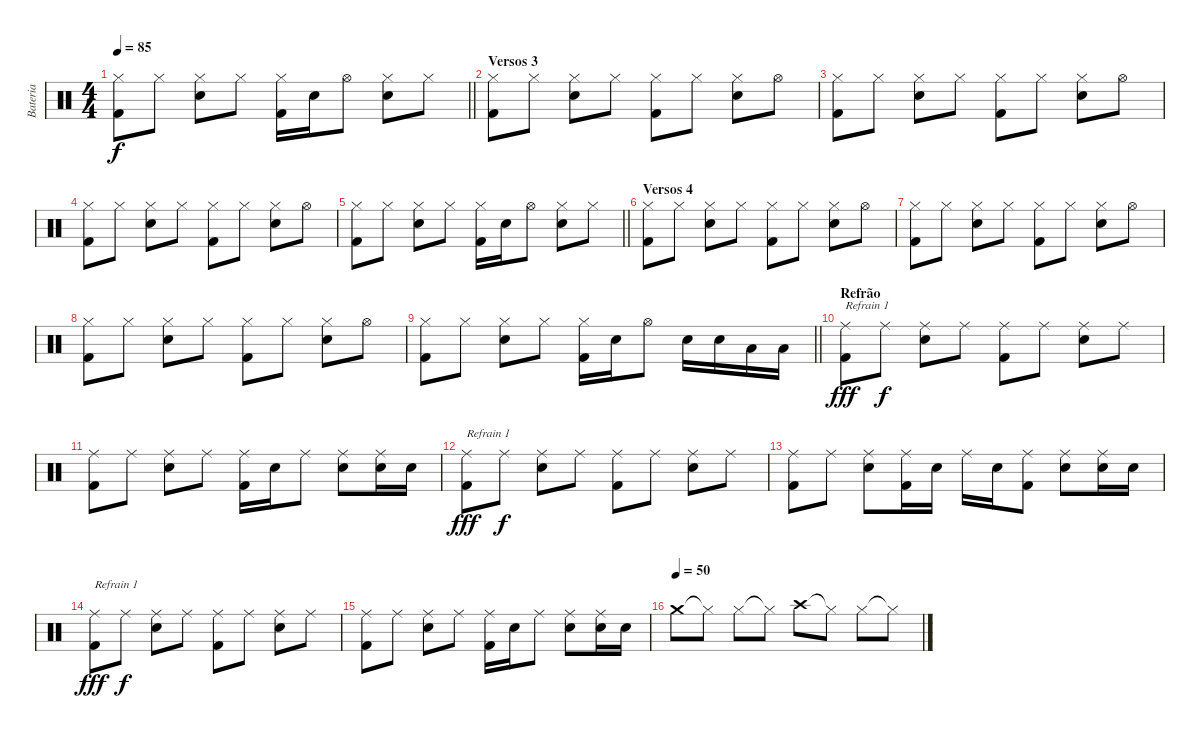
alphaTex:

\track ("Bateria" "Bateria") {instrument percussion}
\staff {score}
\articulation defaults
\ts (4 4)
\tempo 85
\clef neutral
\barLineRight lightlight
\ks c
("Hi-Hat (closed)" "Kick (hit) 2").8{dy f} "Hi-Hat (closed)".8 ("Hi-Hat (closed)" "Snare (hit) 2").8 "Hi-Hat (closed)".8 ("Hi-Hat (closed)" "Kick (hit) 2").16 "Snare (hit) 2".16 "Hi-Hat (open)".8 ("Hi-Hat (closed)" "Snare (hit) 2").8 "Hi-Hat (closed)".8 |
\section ("" "Versos 3")
("Hi-Hat (closed)" "Kick (hit) 2").8 "Hi-Hat (closed)".8 ("Hi-Hat (closed)" "Snare (hit) 2").8 "Hi-Hat (closed)".8 ("Hi-Hat (closed)" "Kick (hit) 2").8 "Hi-Hat (closed)".8 ("Hi-Hat (closed)" "Snare (hit) 2").8 "Hi-Hat (open)".8 |
("Hi-Hat (closed)" "Kick (hit) 2").8 "Hi-Hat (closed)".8 ("Hi-Hat (closed)" "Snare (hit) 2").8 "Hi-Hat (closed)".8 ("Hi-Hat (closed)" "Kick (hit) 2").8 "Hi-Hat (closed)".8 ("Hi-Hat (closed)" "Snare (hit) 2").8 "Hi-Hat (open)".8 |
("Hi-Hat (closed)" "Kick (hit) 2").8 "Hi-Hat (closed)".8 ("Hi-Hat (closed)" "Snare (hit) 2").8 "Hi-Hat (closed)".8 ("Hi-Hat (closed)" "Kick (hit) 2").8 "Hi-Hat (closed)".8 ("Hi-Hat (closed)" "Snare (hit) 2").8 "Hi-Hat (open)".8 |
\barLineRight lightlight
("Hi-Hat (closed)" "Kick (hit) 2").8 "Hi-Hat (closed)".8 ("Hi-Hat (closed)" "Snare (hit) 2").8 "Hi-Hat (closed)".8 ("Hi-Hat (closed)" "Kick (hit) 2").16 "Snare (hit) 2".16 "Hi-Hat (open)".8 ("Hi-Hat (closed)" "Snare (hit) 2").8 "Hi-Hat (closed)".8 |
\section ("" "Versos 4")
("Hi-Hat (closed)" "Kick (hit) 2").8 "Hi-Hat (closed)".8 ("Hi-Hat (closed)" "Snare (hit) 2").8 "Hi-Hat (closed)".8 ("Hi-Hat (closed)" "Kick (hit) 2").8 "Hi-Hat (closed)".8 ("Hi-Hat (closed)" "Snare (hit) 2").8 "Hi-Hat (open)".8 |
("Hi-Hat (closed)" "Kick (hit) 2").8 "Hi-Hat (closed)".8 ("Hi-Hat (closed)" "Snare (hit) 2").8 "Hi-Hat (closed)".8 ("Hi-Hat (closed)" "Kick (hit) 2").8 "Hi-Hat (closed)".8 ("Hi-Hat (closed)" "Snare (hit) 2").8 "Hi-Hat (open)".8 |
("Hi-Hat (closed)" "Kick (hit) 2").8 "Hi-Hat (closed)".8 ("Hi-Hat (closed)" "Snare (hit) 2").8 "Hi-Hat (closed)".8 ("Hi-Hat (closed)" "Kick (hit) 2").8 "Hi-Hat (closed)".8 ("Hi-Hat (closed)" "Snare (hit) 2").8 "Hi-Hat (open)".8 |
\barLineRight lightlight
("Hi-Hat (closed)" "Kick (hit) 2").8 "Hi-Hat (closed)".8 ("Hi-Hat (closed)" "Snare (hit) 2").8 "Hi-Hat (closed)".8 ("Hi-Hat (closed)" "Kick (hit) 2").16 "Snare (hit) 2".16 "Hi-Hat (open)".8 "Snare (hit) 2".16 "Snare (hit) 2".16 "Low Tom (hit)".16 "Low Tom (hit)".16 |
\section ("" "Refrão")
("Ride (middle)" "Kick (hit) 2").8{txt "Refrain 1" dy fff} "Ride (middle)".8{dy f} ("Ride (middle)" "Snare (hit) 2").8 "Ride (middle)".8 ("Ride (middle)" "Kick (hit) 2").8 "Ride (middle)".8 ("Ride (middle)" "Snare (hit) 2").8 "Ride (middle)".8 |
("Ride (middle)" "Kick (hit) 2").8 "Ride (middle)".8 ("Ride (middle)" "Snare (hit) 2").8 "Ride (middle)".8 ("Ride (middle)" "Kick (hit) 2").16 "Snare (hit) 2".16 "Ride (middle)".8 ("Ride (middle)" "Snare (hit) 2").8 ("Ride (middle)" "Snare (hit) 2").16 "Snare (hit) 2".16 |
("Ride (middle)" "Kick (hit) 2").8{txt "Refrain 1" dy fff} "Ride (middle)".8{dy f} ("Ride (middle)" "Snare (hit) 2").8 "Ride (middle)".8 ("Ride (middle)" "Kick (hit) 2").8 "Ride (middle)".8 ("Ride (middle)" "Snare (hit) 2").8 "Ride (middle)".8 |
("Ride (middle)" "Kick (hit) 2").8 "Ride (middle)".8 ("Ride (middle)" "Snare (hit) 2").8 ("Ride (middle)" "Kick (hit) 2").16 "Snare (hit) 2".16 "Ride (middle)".16 "Snare (hit) 2".16 ("Ride (middle)" "Kick (hit) 2").8 ("Ride (middle)" "Snare (hit) 2").8 ("Ride (middle)" "Snare (hit) 2").16 "Snare (hit) 2".16 |
("Ride (middle)" "Kick (hit) 2").8{txt "Refrain 1" dy fff} "Ride (middle)".8{dy f} ("Ride (middle)" "Snare (hit) 2").8 "Ride (middle)".8 ("Ride (middle)" "Kick (hit) 2").8 "Ride (middle)".8 ("Ride (middle)" "Snare (hit) 2").8 "Ride (middle)".8 |
("Ride (middle)" "Kick (hit) 2").8 "Ride (middle)".8 ("Ride (middle)" "Snare (hit) 2").8 "Ride (middle)".8 ("Ride (middle)" "Kick (hit) 2").16 "Snare (hit) 2".16 "Ride (middle)".8 ("Ride (middle)" "Snare (hit) 2").8 ("Ride (middle)" "Snare (hit) 2").16 "Snare (hit) 2".16 |
\tempo (50)
"Crash medium (hit)".8 "Hi-Hat (closed)"{t}.8 "Hi-Hat (closed)".8 "Hi-Hat (closed)"{t}.8 "Crash high (hit)".8 "Hi-Hat (closed)"{t}.8 "Hi-Hat (closed)".8 "Hi-Hat (closed)"{t}.8
